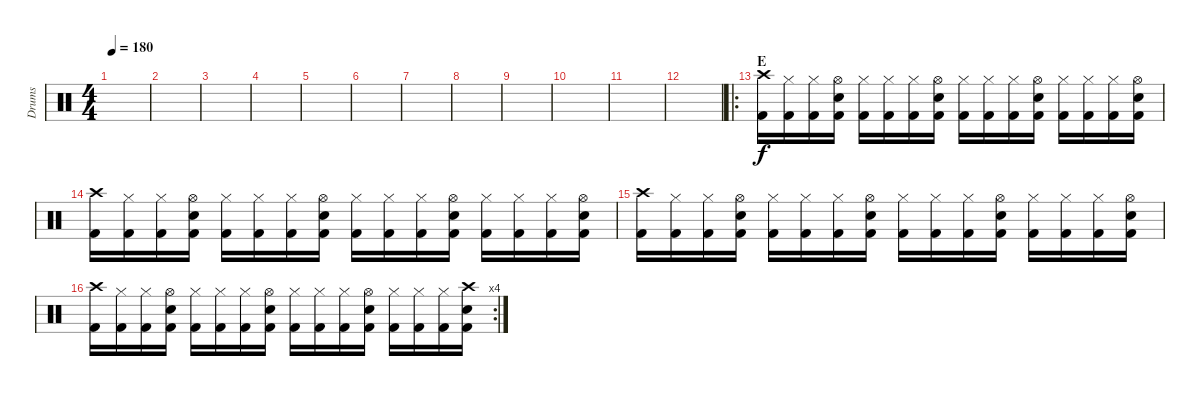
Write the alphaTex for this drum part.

\track ("Drums" "Drums") {instrument percussion}
\staff {score}
\articulation defaults
\ts (4 4)
\tempo 180
\clef neutral
\ks c
|
|
|
|
|
|
|
|
|
|
|
|
\ro
\section ("" "E")
("Crash high (hit)" "Kick (hit) 2").16 ("Hi-Hat (closed)" "Kick (hit) 2").16 ("Hi-Hat (closed)" "Kick (hit) 2").16 ("Hi-Hat (open)" "Snare (hit) 2" "Kick (hit) 2").16 ("Hi-Hat (closed)" "Kick (hit) 2").16 ("Hi-Hat (closed)" "Kick (hit) 2").16 ("Hi-Hat (closed)" "Kick (hit) 2").16 ("Hi-Hat (open)" "Snare (hit) 2" "Kick (hit) 2").16 ("Hi-Hat (closed)" "Kick (hit) 2").16 ("Hi-Hat (closed)" "Kick (hit) 2").16 ("Hi-Hat (closed)" "Kick (hit) 2").16 ("Hi-Hat (open)" "Snare (hit) 2" "Kick (hit) 2").16 ("Hi-Hat (closed)" "Kick (hit) 2").16 ("Hi-Hat (closed)" "Kick (hit) 2").16 ("Hi-Hat (closed)" "Kick (hit) 2").16 ("Hi-Hat (open)" "Snare (hit) 2" "Kick (hit) 2").16 |
("Crash high (hit)" "Kick (hit) 2").16 ("Hi-Hat (closed)" "Kick (hit) 2").16 ("Hi-Hat (closed)" "Kick (hit) 2").16 ("Hi-Hat (open)" "Snare (hit) 2" "Kick (hit) 2").16 ("Hi-Hat (closed)" "Kick (hit) 2").16 ("Hi-Hat (closed)" "Kick (hit) 2").16 ("Hi-Hat (closed)" "Kick (hit) 2").16 ("Hi-Hat (open)" "Snare (hit) 2" "Kick (hit) 2").16 ("Hi-Hat (closed)" "Kick (hit) 2").16 ("Hi-Hat (closed)" "Kick (hit) 2").16 ("Hi-Hat (closed)" "Kick (hit) 2").16 ("Hi-Hat (open)" "Snare (hit) 2" "Kick (hit) 2").16 ("Hi-Hat (closed)" "Kick (hit) 2").16 ("Hi-Hat (closed)" "Kick (hit) 2").16 ("Hi-Hat (closed)" "Kick (hit) 2").16 ("Hi-Hat (open)" "Snare (hit) 2" "Kick (hit) 2").16 |
("Crash high (hit)" "Kick (hit) 2").16 ("Hi-Hat (closed)" "Kick (hit) 2").16 ("Hi-Hat (closed)" "Kick (hit) 2").16 ("Hi-Hat (open)" "Snare (hit) 2" "Kick (hit) 2").16 ("Hi-Hat (closed)" "Kick (hit) 2").16 ("Hi-Hat (closed)" "Kick (hit) 2").16 ("Hi-Hat (closed)" "Kick (hit) 2").16 ("Hi-Hat (open)" "Snare (hit) 2" "Kick (hit) 2").16 ("Hi-Hat (closed)" "Kick (hit) 2").16 ("Hi-Hat (closed)" "Kick (hit) 2").16 ("Hi-Hat (closed)" "Kick (hit) 2").16 ("Hi-Hat (open)" "Snare (hit) 2" "Kick (hit) 2").16 ("Hi-Hat (closed)" "Kick (hit) 2").16 ("Hi-Hat (closed)" "Kick (hit) 2").16 ("Hi-Hat (closed)" "Kick (hit) 2").16 ("Hi-Hat (open)" "Snare (hit) 2" "Kick (hit) 2").16 |
\rc 4
("Crash high (hit)" "Kick (hit) 2").16 ("Hi-Hat (closed)" "Kick (hit) 2").16 ("Hi-Hat (closed)" "Kick (hit) 2").16 ("Hi-Hat (open)" "Snare (hit) 2" "Kick (hit) 2").16 ("Hi-Hat (closed)" "Kick (hit) 2").16 ("Hi-Hat (closed)" "Kick (hit) 2").16 ("Hi-Hat (closed)" "Kick (hit) 2").16 ("Hi-Hat (open)" "Snare (hit) 2" "Kick (hit) 2").16 ("Hi-Hat (closed)" "Kick (hit) 2").16 ("Hi-Hat (closed)" "Kick (hit) 2").16 ("Hi-Hat (closed)" "Kick (hit) 2").16 ("Hi-Hat (open)" "Snare (hit) 2" "Kick (hit) 2").16 ("Hi-Hat (closed)" "Kick (hit) 2").16 ("Hi-Hat (closed)" "Kick (hit) 2").16 ("Hi-Hat (closed)" "Kick (hit) 2").16 ("Crash high (hit)" "Snare (hit) 2" "Kick (hit) 2").16
